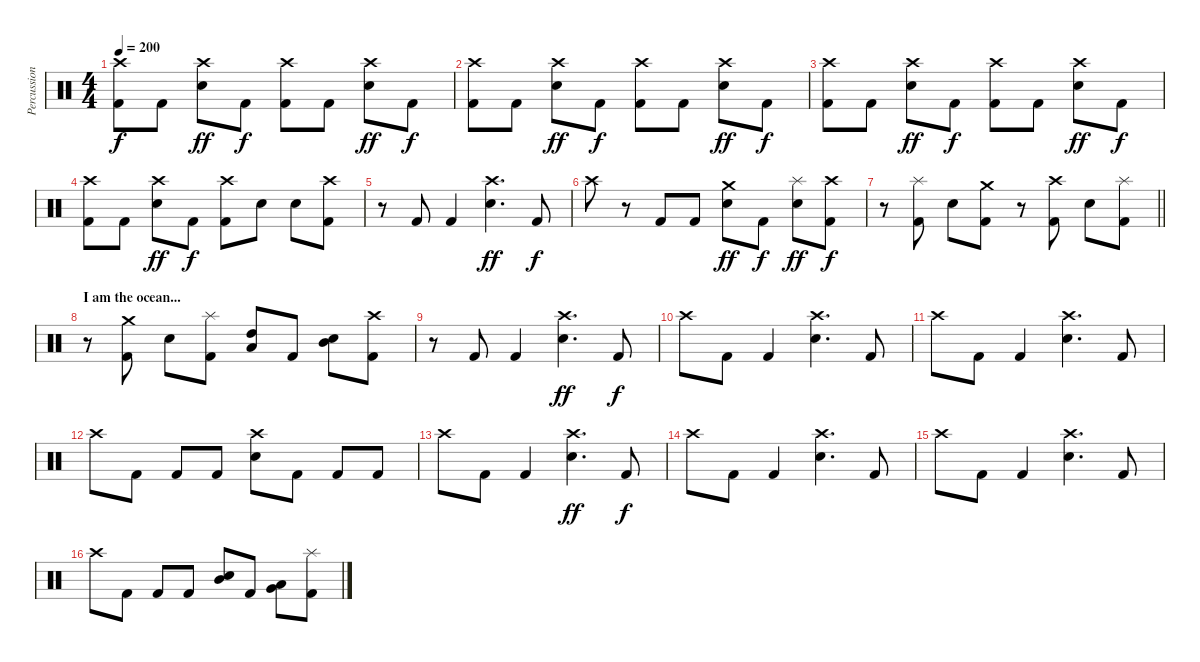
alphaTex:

\track ("Percussion" "Percussion") {instrument percussion}
\staff {score}
\articulation defaults
\ts (4 4)
\tempo 200
\clef neutral
\ks c
("Crash high (hit)" "Kick (hit) 2").8{dy f} "Kick (hit) 2".8 ("Crash high (hit)" "Snare (hit) 2").8{dy ff} "Kick (hit) 2".8{dy f} ("Crash high (hit)" "Kick (hit) 2").8 "Kick (hit) 2".8 ("Crash high (hit)" "Snare (hit) 2").8{dy ff} "Kick (hit) 2".8{dy f} |
("Crash high (hit)" "Kick (hit) 2").8 "Kick (hit) 2".8 ("Crash high (hit)" "Snare (hit) 2").8{dy ff} "Kick (hit) 2".8{dy f} ("Crash high (hit)" "Kick (hit) 2").8 "Kick (hit) 2".8 ("Crash high (hit)" "Snare (hit) 2").8{dy ff} "Kick (hit) 2".8{dy f} |
("Crash high (hit)" "Kick (hit) 2").8 "Kick (hit) 2".8 ("Crash high (hit)" "Snare (hit) 2").8{dy ff} "Kick (hit) 2".8{dy f} ("Crash high (hit)" "Kick (hit) 2").8 "Kick (hit) 2".8 ("Crash high (hit)" "Snare (hit) 2").8{dy ff} "Kick (hit) 2".8{dy f} |
("Crash high (hit)" "Kick (hit) 2").8 "Kick (hit) 2".8 ("Crash high (hit)" "Snare (hit) 2").8{dy ff} "Kick (hit) 2".8{dy f} ("Crash high (hit)" "Kick (hit) 2").8 "Snare (hit) 2".8 "Snare (hit) 2".8 ("Crash high (hit)" "Kick (hit) 2").8 |
r.8 "Kick (hit) 2".8 "Kick (hit) 2".4 ("Crash high (hit)" "Snare (hit) 2").4{d dy ff} "Kick (hit) 2".8{dy f} |
"Crash high (hit)".8 r.8 "Kick (hit) 2".8 "Kick (hit) 2".8 ("Crash medium (hit)" "Snare (hit) 2").8{dy ff} "Kick (hit) 2".8{dy f} ("Splash (hit)" "Snare (hit) 2").8{dy ff} ("Crash high (hit)" "Kick (hit) 2").8{dy f} |
\barLineRight lightlight
r.8 ("Splash (hit)" "Kick (hit) 2").8 "Snare (hit) 2".8 ("Crash medium (hit)" "Kick (hit) 2").8 r.8 ("Crash high (hit)" "Kick (hit) 2").8 "Snare (hit) 2".8 ("Splash (hit)" "Kick (hit) 2").8 |
\section ("" "I am the ocean...")
r.8 ("Crash medium (hit)" "Kick (hit) 2").8 "Snare (hit) 2".8 ("Splash (hit)" "Kick (hit) 2").8 ("Low Tom (hit)" "High Tom (hit)").8 "Kick (hit) 2".8 ("Mid Tom (hit)" "Snare (hit) 2").8 ("Crash high (hit)" "Kick (hit) 2").8 |
r.8 "Kick (hit) 2".8 "Kick (hit) 2".4 ("Crash high (hit)" "Snare (hit) 2").4{d dy ff} "Kick (hit) 2".8{dy f} |
"Crash high (hit)".8 "Kick (hit) 2".8 "Kick (hit) 2".4 ("Crash high (hit)" "Snare (hit) 2").4{d} "Kick (hit) 2".8 |
"Crash high (hit)".8 "Kick (hit) 2".8 "Kick (hit) 2".4 ("Crash high (hit)" "Snare (hit) 2").4{d} "Kick (hit) 2".8 |
"Crash high (hit)".8 "Kick (hit) 2".8 "Kick (hit) 2".8 "Kick (hit) 2".8 ("Crash high (hit)" "Snare (hit) 2").8 "Kick (hit) 2".8 "Kick (hit) 2".8 "Kick (hit) 2".8 |
"Crash high (hit)".8 "Kick (hit) 2".8 "Kick (hit) 2".4 ("Crash high (hit)" "Snare (hit) 2").4{d dy ff} "Kick (hit) 2".8{dy f} |
"Crash high (hit)".8 "Kick (hit) 2".8 "Kick (hit) 2".4 ("Crash high (hit)" "Snare (hit) 2").4{d} "Kick (hit) 2".8 |
"Crash high (hit)".8 "Kick (hit) 2".8 "Kick (hit) 2".4 ("Crash high (hit)" "Snare (hit) 2").4{d} "Kick (hit) 2".8 |
"Crash high (hit)".8 "Kick (hit) 2".8 "Kick (hit) 2".8 "Kick (hit) 2".8 ("Mid Tom (hit)" "Snare (hit) 2").8 "Kick (hit) 2".8 ("Very Low Tom (hit)" "Low Tom (hit)").8 ("Splash (hit)" "Kick (hit) 2").8
